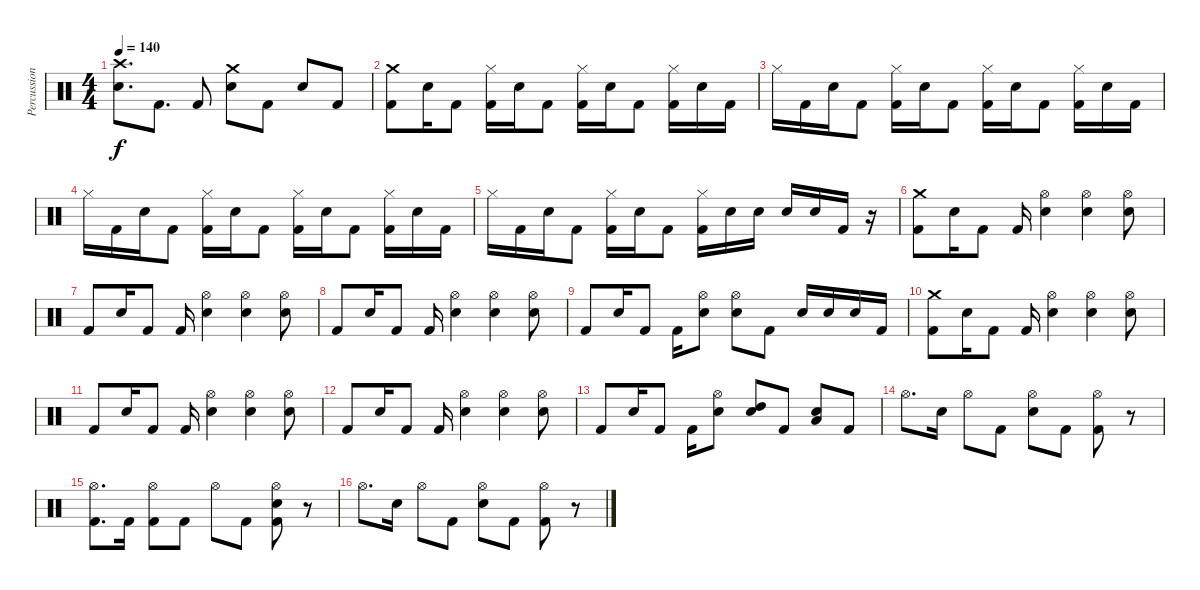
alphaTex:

\track ("Percussion" "Percussion") {instrument percussion}
\staff {score}
\articulation defaults
\ts (4 4)
\tempo 140
\clef neutral
\ks c
("Crash high (hit)" "Snare (hit) 2").8{d dy f} "Kick (hit) 2".8{d} "Kick (hit) 2".8 ("Crash medium (hit)" "Snare (hit) 2").8 "Kick (hit) 2".8 "Snare (hit) 2".8 "Kick (hit) 2".8 |
("Crash medium (hit)" "Kick (hit) 2").8 "Snare (hit) 2".16 "Kick (hit) 2".8 ("Hi-Hat (closed)" "Kick (hit) 2").16 "Snare (hit) 2".16 "Kick (hit) 2".8 ("Hi-Hat (closed)" "Kick (hit) 2").16 "Snare (hit) 2".16 "Kick (hit) 2".8 ("Hi-Hat (closed)" "Kick (hit) 2").16 "Snare (hit) 2".16 "Kick (hit) 2".16 |
"Hi-Hat (closed)".16 "Kick (hit) 2".16 "Snare (hit) 2".16 "Kick (hit) 2".8 ("Hi-Hat (closed)" "Kick (hit) 2").16 "Snare (hit) 2".16 "Kick (hit) 2".8 ("Hi-Hat (closed)" "Kick (hit) 2").16 "Snare (hit) 2".16 "Kick (hit) 2".8 ("Hi-Hat (closed)" "Kick (hit) 2").16 "Snare (hit) 2".16 "Kick (hit) 2".16 |
"Hi-Hat (closed)".16 "Kick (hit) 2".16 "Snare (hit) 2".16 "Kick (hit) 2".8 ("Hi-Hat (closed)" "Kick (hit) 2").16 "Snare (hit) 2".16 "Kick (hit) 2".8 ("Hi-Hat (closed)" "Kick (hit) 2").16 "Snare (hit) 2".16 "Kick (hit) 2".8 ("Hi-Hat (closed)" "Kick (hit) 2").16 "Snare (hit) 2".16 "Kick (hit) 2".16 |
"Hi-Hat (closed)".16 "Kick (hit) 2".16 "Snare (hit) 2".16 "Kick (hit) 2".8 ("Hi-Hat (closed)" "Kick (hit) 2").16 "Snare (hit) 2".16 "Kick (hit) 2".8 ("Hi-Hat (closed)" "Kick (hit) 2").16 "Snare (hit) 2".16 "Snare (hit) 2".16 "Snare (hit) 2".16 "Snare (hit) 2".16 "Kick (hit) 2".16 r.16 |
("Crash medium (hit)" "Kick (hit) 2").8 "Snare (hit) 2".16 "Kick (hit) 2".8 "Kick (hit) 2".16 ("Hi-Hat (open)" "Snare (hit) 2").4 ("Hi-Hat (open)" "Snare (hit) 2").4 ("Hi-Hat (open)" "Snare (hit) 2").8 |
"Kick (hit) 2".8 "Snare (hit) 2".16 "Kick (hit) 2".8 "Kick (hit) 2".16 ("Hi-Hat (open)" "Snare (hit) 2").4 ("Hi-Hat (open)" "Snare (hit) 2").4 ("Hi-Hat (open)" "Snare (hit) 2").8 |
"Kick (hit) 2".8 "Snare (hit) 2".16 "Kick (hit) 2".8 "Kick (hit) 2".16 ("Hi-Hat (open)" "Snare (hit) 2").4 ("Hi-Hat (open)" "Snare (hit) 2").4 ("Hi-Hat (open)" "Snare (hit) 2").8 |
"Kick (hit) 2".8 "Snare (hit) 2".16 "Kick (hit) 2".8 "Kick (hit) 2".16 ("Hi-Hat (open)" "Snare (hit) 2").8 ("Hi-Hat (open)" "Snare (hit) 2").8 "Kick (hit) 2".8 "Snare (hit) 2".16 "Snare (hit) 2".16 "Snare (hit) 2".16 "Kick (hit) 2".16 |
("Crash medium (hit)" "Kick (hit) 2").8 "Snare (hit) 2".16 "Kick (hit) 2".8 "Kick (hit) 2".16 ("Hi-Hat (open)" "Snare (hit) 2").4 ("Hi-Hat (open)" "Snare (hit) 2").4 ("Hi-Hat (open)" "Snare (hit) 2").8 |
"Kick (hit) 2".8 "Snare (hit) 2".16 "Kick (hit) 2".8 "Kick (hit) 2".16 ("Hi-Hat (open)" "Snare (hit) 2").4 ("Hi-Hat (open)" "Snare (hit) 2").4 ("Hi-Hat (open)" "Snare (hit) 2").8 |
"Kick (hit) 2".8 "Snare (hit) 2".16 "Kick (hit) 2".8 "Kick (hit) 2".16 ("Hi-Hat (open)" "Snare (hit) 2").4 ("Hi-Hat (open)" "Snare (hit) 2").4 ("Hi-Hat (open)" "Snare (hit) 2").8 |
"Kick (hit) 2".8 "Snare (hit) 2".16 "Kick (hit) 2".8 "Kick (hit) 2".16 ("Hi-Hat (open)" "Snare (hit) 2").8 ("High Tom (hit)" "Snare (hit) 2").8 "Kick (hit) 2".8 ("Low Tom (hit)" "Snare (hit) 2").8 "Kick (hit) 2".8 |
"Hi-Hat (open)".8{d} "Snare (hit) 2".16 "Hi-Hat (open)".8 "Kick (hit) 2".8 ("Hi-Hat (open)" "Snare (hit) 2").8 "Kick (hit) 2".8 ("Hi-Hat (open)" "Kick (hit) 2").8 r.8 |
("Hi-Hat (open)" "Kick (hit) 2").8{d} "Kick (hit) 2".16 ("Hi-Hat (open)" "Kick (hit) 2").8 "Kick (hit) 2".8 "Hi-Hat (open)".8 "Kick (hit) 2".8 ("Hi-Hat (open)" "Snare (hit) 2" "Kick (hit) 2").8 r.8 |
"Hi-Hat (open)".8{d} "Snare (hit) 2".16 "Hi-Hat (open)".8 "Kick (hit) 2".8 ("Hi-Hat (open)" "Snare (hit) 2").8 "Kick (hit) 2".8 ("Hi-Hat (open)" "Kick (hit) 2").8 r.8
